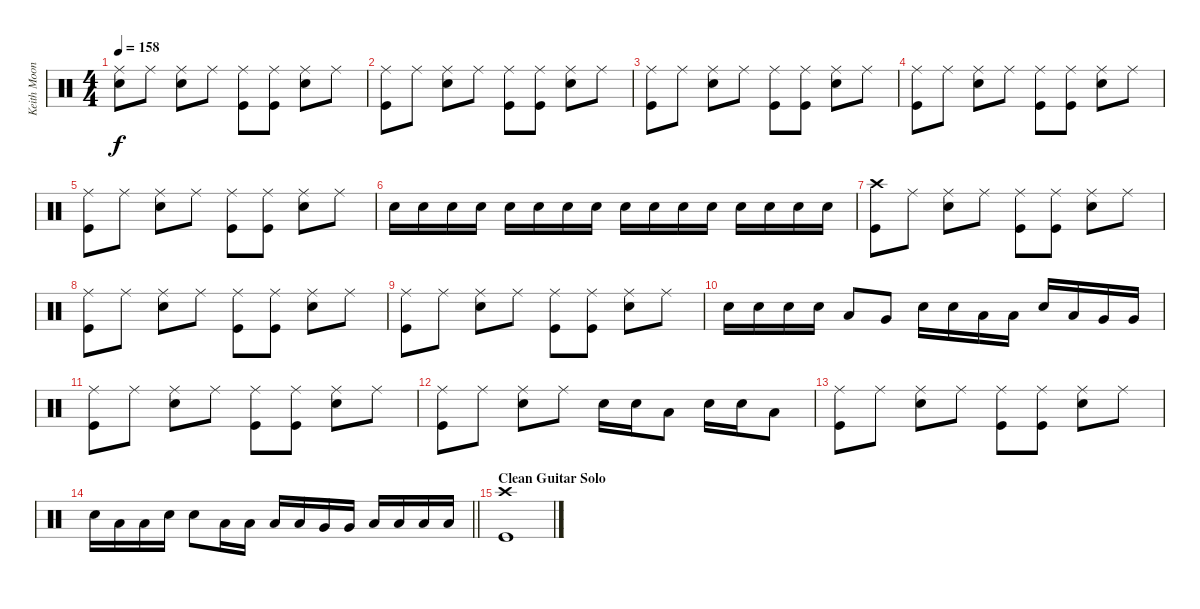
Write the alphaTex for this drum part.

\track ("Keith Moon" "Keith Moon") {instrument percussion}
\staff {score}
\articulation defaults
\ts (4 4)
\tempo 158
\clef neutral
\ks c
("Ride (middle)" "Snare (hit) 2").8{dy f} "Ride (middle)".8 ("Ride (middle)" "Snare (hit) 2").8 "Ride (middle)".8 ("Ride (middle)" "Kick (hit)").8 ("Ride (middle)" "Kick (hit)").8 ("Ride (middle)" "Snare (hit) 2").8 "Ride (middle)".8 |
("Ride (middle)" "Kick (hit)").8 "Ride (middle)".8 ("Ride (middle)" "Snare (hit) 2").8 "Ride (middle)".8 ("Ride (middle)" "Kick (hit)").8 ("Ride (middle)" "Kick (hit)").8 ("Ride (middle)" "Snare (hit) 2").8 "Ride (middle)".8 |
("Ride (middle)" "Kick (hit)").8 "Ride (middle)".8 ("Ride (middle)" "Snare (hit) 2").8 "Ride (middle)".8 ("Ride (middle)" "Kick (hit)").8 ("Ride (middle)" "Kick (hit)").8 ("Ride (middle)" "Snare (hit) 2").8 "Ride (middle)".8 |
("Ride (middle)" "Kick (hit)").8 "Ride (middle)".8 ("Ride (middle)" "Snare (hit) 2").8 "Ride (middle)".8 ("Ride (middle)" "Kick (hit)").8 ("Ride (middle)" "Kick (hit)").8 ("Ride (middle)" "Snare (hit) 2").8 "Ride (middle)".8 |
("Ride (middle)" "Kick (hit)").8 "Ride (middle)".8 ("Ride (middle)" "Snare (hit) 2").8 "Ride (middle)".8 ("Ride (middle)" "Kick (hit)").8 ("Ride (middle)" "Kick (hit)").8 ("Ride (middle)" "Snare (hit) 2").8 "Ride (middle)".8 |
"Snare (hit) 2".16 "Snare (hit) 2".16 "Snare (hit) 2".16 "Snare (hit) 2".16 "Snare (hit) 2".16 "Snare (hit) 2".16 "Snare (hit) 2".16 "Snare (hit) 2".16 "Snare (hit) 2".16 "Snare (hit) 2".16 "Snare (hit) 2".16 "Snare (hit) 2".16 "Snare (hit) 2".16 "Snare (hit) 2".16 "Snare (hit) 2".16 "Snare (hit) 2".16 |
("Crash high (hit)" "Kick (hit)").8 "Ride (middle)".8 ("Ride (middle)" "Snare (hit) 2").8 "Ride (middle)".8 ("Ride (middle)" "Kick (hit)").8 ("Ride (middle)" "Kick (hit)").8 ("Ride (middle)" "Snare (hit) 2").8 "Ride (middle)".8 |
("Ride (middle)" "Kick (hit)").8 "Ride (middle)".8 ("Ride (middle)" "Snare (hit) 2").8 "Ride (middle)".8 ("Ride (middle)" "Kick (hit)").8 ("Ride (middle)" "Kick (hit)").8 ("Ride (middle)" "Snare (hit) 2").8 "Ride (middle)".8 |
("Ride (middle)" "Kick (hit)").8 "Ride (middle)".8 ("Ride (middle)" "Snare (hit) 2").8 "Ride (middle)".8 ("Ride (middle)" "Kick (hit)").8 ("Ride (middle)" "Kick (hit)").8 ("Ride (middle)" "Snare (hit) 2").8 "Ride (middle)".8 |
"Snare (hit) 2".16 "Snare (hit) 2".16 "Snare (hit) 2".16 "Snare (hit) 2".16 "Low Tom (hit)".8 "Very Low Tom (hit)".8 "Snare (hit) 2".16 "Snare (hit) 2".16 "Low Tom (hit)".16 "Low Tom (hit)".16 "Snare (hit) 2".16 "Low Tom (hit)".16 "Very Low Tom (hit)".16 "Very Low Tom (hit)".16 |
("Ride (middle)" "Kick (hit)").8 "Ride (middle)".8 ("Ride (middle)" "Snare (hit) 2").8 "Ride (middle)".8 ("Ride (middle)" "Kick (hit)").8 ("Ride (middle)" "Kick (hit)").8 ("Ride (middle)" "Snare (hit) 2").8 "Ride (middle)".8 |
("Ride (middle)" "Kick (hit)").8 "Ride (middle)".8 ("Ride (middle)" "Snare (hit) 2").8 "Ride (middle)".8 "Snare (hit) 2".16 "Snare (hit) 2".16 "Low Tom (hit)".8 "Snare (hit) 2".16 "Snare (hit) 2".16 "Low Tom (hit)".8 |
("Ride (middle)" "Kick (hit)").8 "Ride (middle)".8 ("Ride (middle)" "Snare (hit) 2").8 "Ride (middle)".8 ("Ride (middle)" "Kick (hit)").8 ("Ride (middle)" "Kick (hit)").8 ("Ride (middle)" "Snare (hit) 2").8 "Ride (middle)".8 |
\barLineRight lightlight "Snare (hit) 2".16 "Low Tom (hit)".16 "Low Tom (hit)".16 "Snare (hit) 2".16 "Snare (hit) 2".8 "Low Tom (hit)".16 "Low Tom (hit)".16 "Low Tom (hit)".16 "Low Tom (hit)".16 "Very Low Tom (hit)".16 "Very Low Tom (hit)".16 "Low Floor Tom (hit)".16 "Low Floor Tom (hit)".16 "Low Floor Tom (hit)".16 "Low Floor Tom (hit)".16
|
\section ("" "Clean Guitar Solo")
("Crash high (hit)" "Kick (hit)").1
